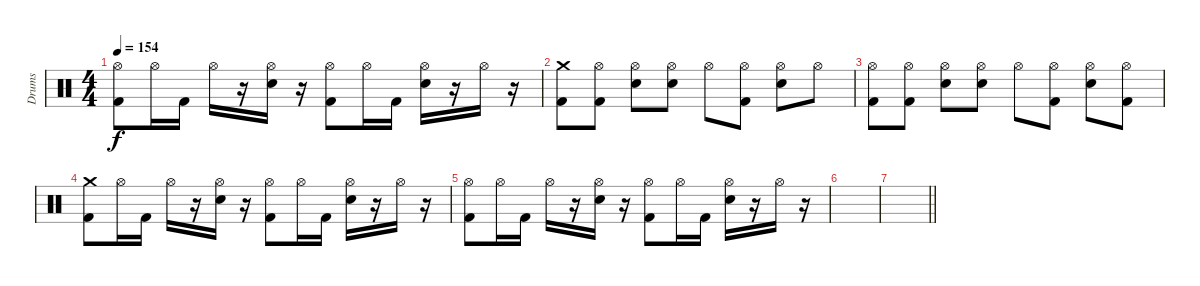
\track ("Drums" "Drums") {instrument percussion}
\staff {score}
\articulation defaults
\ts (4 4)
\tempo 154
\clef neutral
\ks c
("Kick (hit) 2" "Hi-Hat (open)").8{dy f} "Hi-Hat (open)".16 "Kick (hit) 2".16 "Hi-Hat (open)".16 r.16 ("Electric Snare (hit)" "Hi-Hat (open)").16 r.16 ("Kick (hit) 2" "Hi-Hat (open)").8 "Hi-Hat (open)".16 "Kick (hit) 2".16 ("Electric Snare (hit)" "Hi-Hat (open)").16 r.16 "Hi-Hat (open)".16 r.16 |
("Kick (hit) 2" "Crash medium (hit)").8 ("Kick (hit) 2" "Hi-Hat (open)").8 ("Electric Snare (hit)" "Hi-Hat (open)").8 ("Electric Snare (hit)" "Hi-Hat (open)").8 "Hi-Hat (open)".8 ("Kick (hit) 2" "Hi-Hat (open)").8 ("Electric Snare (hit)" "Hi-Hat (open)").8 "Hi-Hat (open)".8 |
("Kick (hit) 2" "Hi-Hat (open)").8 ("Kick (hit) 2" "Hi-Hat (open)").8 ("Electric Snare (hit)" "Hi-Hat (open)").8 ("Electric Snare (hit)" "Hi-Hat (open)").8 "Hi-Hat (open)".8 ("Kick (hit) 2" "Hi-Hat (open)").8 ("Electric Snare (hit)" "Hi-Hat (open)").8 ("Kick (hit) 2" "Hi-Hat (open)").8 |
("Kick (hit) 2" "Crash medium (hit)").8 "Hi-Hat (open)".16 "Kick (hit) 2".16 "Hi-Hat (open)".16 r.16 ("Electric Snare (hit)" "Hi-Hat (open)").16 r.16 ("Kick (hit) 2" "Hi-Hat (open)").8 "Hi-Hat (open)".16 "Kick (hit) 2".16 ("Electric Snare (hit)" "Hi-Hat (open)").16 r.16 "Hi-Hat (open)".16 r.16 |
("Kick (hit) 2" "Hi-Hat (open)").8 "Hi-Hat (open)".16 "Kick (hit) 2".16 "Hi-Hat (open)".16 r.16 ("Electric Snare (hit)" "Hi-Hat (open)").16 r.16 ("Kick (hit) 2" "Hi-Hat (open)").8 "Hi-Hat (open)".16 "Kick (hit) 2".16 ("Electric Snare (hit)" "Hi-Hat (open)").16 r.16 "Hi-Hat (open)".16 r.16 |
|
\barLineRight lightlight
